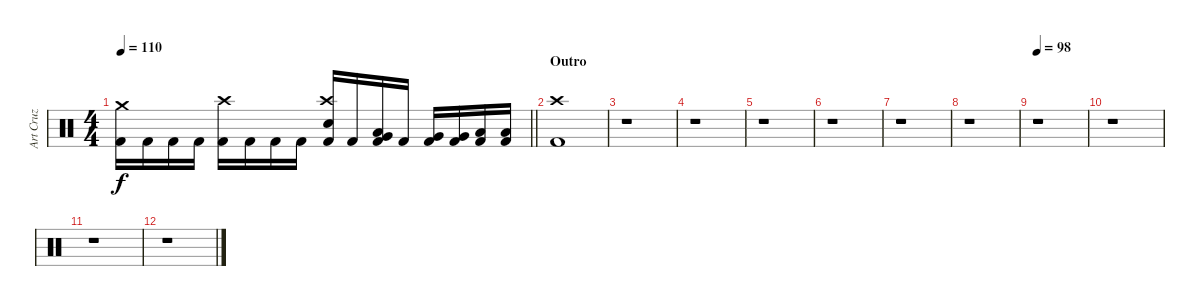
\track ("Art Cruz" "Art Cruz") {instrument percussion}
\staff {score}
\articulation defaults
\ts (4 4)
\tempo 110
\clef neutral
\barLineRight lightlight
\ks c
("Crash medium (hit)" "Kick (hit) 2").16{dy f} "Kick (hit) 2".16 "Kick (hit) 2".16 "Kick (hit) 2".16 ("Crash high (hit)" "Kick (hit) 2").16 "Kick (hit) 2".16 "Kick (hit) 2".16 "Kick (hit) 2".16 ("Crash high (hit)" "Snare (hit) 2" "Kick (hit) 2").16 "Kick (hit) 2".16 ("Low Tom (hit)" "Very Low Tom (hit)" "Kick (hit) 2").16 "Kick (hit) 2".16 ("Very Low Tom (hit)" "Kick (hit) 2").16 ("Very Low Tom (hit)" "Kick (hit) 2").16 ("Low Floor Tom (hit)" "Kick (hit) 2").16 ("Low Floor Tom (hit)" "Kick (hit) 2").16 |
\section ("" "Outro")
("Crash high (hit)" "Kick (hit) 2").1 |
r.1 |
r.1 |
r.1 |
r.1 |
r.1 |
r.1 |
\tempo 98
r.1 |
r.1 |
r.1 |
r.1
